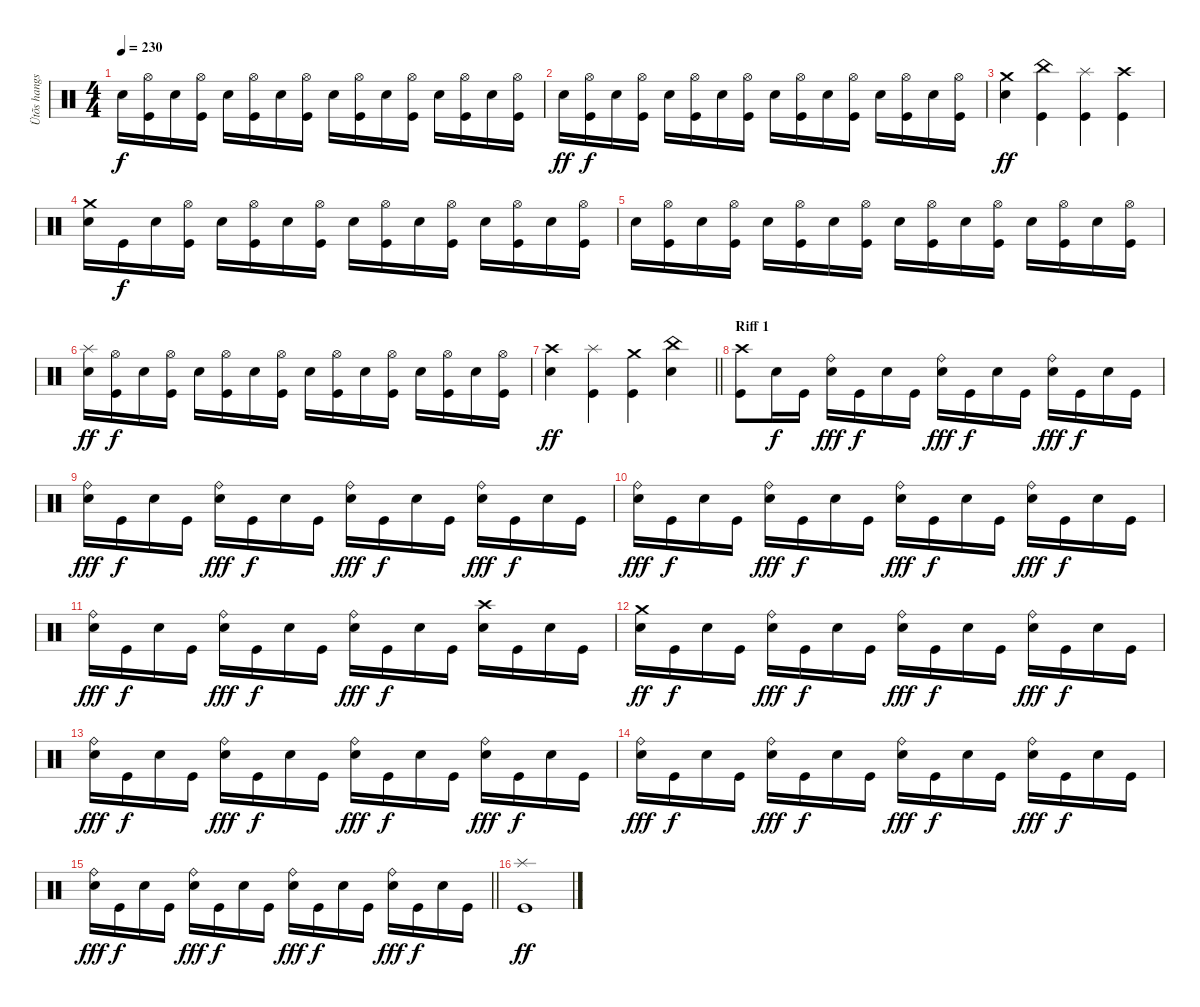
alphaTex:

\track ("Ütõs hangszer" "Ütõs hangs") {instrument percussion}
\staff {score}
\articulation defaults
\ts (4 4)
\tempo 230
\clef neutral
\ks c "Electric Snare (hit)".16{dy f}
("Hi-Hat (open)" "Kick (hit)").16 "Electric Snare (hit)".16 ("Hi-Hat (open)" "Kick (hit)").16 "Electric Snare (hit)".16 ("Hi-Hat (open)" "Kick (hit)").16 "Electric Snare (hit)".16 ("Hi-Hat (open)" "Kick (hit)").16 "Electric Snare (hit)".16 ("Hi-Hat (open)" "Kick (hit)").16 "Electric Snare (hit)".16 ("Hi-Hat (open)" "Kick (hit)").16 "Electric Snare (hit)".16 ("Hi-Hat (open)" "Kick (hit)").16 "Electric Snare (hit)".16 ("Hi-Hat (open)" "Kick (hit)").16 |
"Electric Snare (hit)".16{dy ff} ("Hi-Hat (open)" "Kick (hit)").16{dy f} "Electric Snare (hit)".16 ("Hi-Hat (open)" "Kick (hit)").16 "Electric Snare (hit)".16 ("Hi-Hat (open)" "Kick (hit)").16 "Electric Snare (hit)".16 ("Hi-Hat (open)" "Kick (hit)").16 "Electric Snare (hit)".16 ("Hi-Hat (open)" "Kick (hit)").16 "Electric Snare (hit)".16 ("Hi-Hat (open)" "Kick (hit)").16 "Electric Snare (hit)".16 ("Hi-Hat (open)" "Kick (hit)").16 "Electric Snare (hit)".16 ("Hi-Hat (open)" "Kick (hit)").16 |
("Crash medium (hit)" "Electric Snare (hit)").4{dy ff} ("China (hit)" "Kick (hit)").4 ("Splash (hit)" "Kick (hit)").4 ("Crash high (hit)" "Kick (hit)").4 |
("Crash medium (hit)" "Electric Snare (hit)").16 "Kick (hit)".16{dy f} "Electric Snare (hit)".16 ("Hi-Hat (open)" "Kick (hit)").16 "Electric Snare (hit)".16 ("Hi-Hat (open)" "Kick (hit)").16 "Electric Snare (hit)".16 ("Hi-Hat (open)" "Kick (hit)").16 "Electric Snare (hit)".16 ("Hi-Hat (open)" "Kick (hit)").16 "Electric Snare (hit)".16 ("Hi-Hat (open)" "Kick (hit)").16 "Electric Snare (hit)".16 ("Hi-Hat (open)" "Kick (hit)").16 "Electric Snare (hit)".16 ("Hi-Hat (open)" "Kick (hit)").16 |
"Electric Snare (hit)".16 ("Hi-Hat (open)" "Kick (hit)").16 "Electric Snare (hit)".16 ("Hi-Hat (open)" "Kick (hit)").16 "Electric Snare (hit)".16 ("Hi-Hat (open)" "Kick (hit)").16 "Electric Snare (hit)".16 ("Hi-Hat (open)" "Kick (hit)").16 "Electric Snare (hit)".16 ("Hi-Hat (open)" "Kick (hit)").16 "Electric Snare (hit)".16 ("Hi-Hat (open)" "Kick (hit)").16 "Electric Snare (hit)".16 ("Hi-Hat (open)" "Kick (hit)").16 "Electric Snare (hit)".16 ("Hi-Hat (open)" "Kick (hit)").16 |
("Splash (hit)" "Electric Snare (hit)").16{dy ff} ("Hi-Hat (open)" "Kick (hit)").16{dy f} "Electric Snare (hit)".16 ("Hi-Hat (open)" "Kick (hit)").16 "Electric Snare (hit)".16 ("Hi-Hat (open)" "Kick (hit)").16 "Electric Snare (hit)".16 ("Hi-Hat (open)" "Kick (hit)").16 "Electric Snare (hit)".16 ("Hi-Hat (open)" "Kick (hit)").16 "Electric Snare (hit)".16 ("Hi-Hat (open)" "Kick (hit)").16 "Electric Snare (hit)".16 ("Hi-Hat (open)" "Kick (hit)").16 "Electric Snare (hit)".16 ("Hi-Hat (open)" "Kick (hit)").16 |
\barLineRight lightlight
("Crash high (hit)" "Electric Snare (hit)").4{dy ff} ("Splash (hit)" "Kick (hit)").4 ("Crash medium (hit)" "Kick (hit)").4 ("China (hit)" "Electric Snare (hit)").4 |
\section ("" "Riff 1")
("Crash high (hit)" "Kick (hit)").8 "Electric Snare (hit)".16{dy f} "Kick (hit)".16 ("Ride (bell)" "Electric Snare (hit)").16{dy fff} "Kick (hit)".16{dy f} "Electric Snare (hit)".16 "Kick (hit)".16 ("Ride (bell)" "Electric Snare (hit)").16{dy fff} "Kick (hit)".16{dy f} "Electric Snare (hit)".16 "Kick (hit)".16 ("Ride (bell)" "Electric Snare (hit)").16{dy fff} "Kick (hit)".16{dy f} "Electric Snare (hit)".16 "Kick (hit)".16 |
("Ride (bell)" "Electric Snare (hit)").16{dy fff} "Kick (hit)".16{dy f} "Electric Snare (hit)".16 "Kick (hit)".16 ("Ride (bell)" "Electric Snare (hit)").16{dy fff} "Kick (hit)".16{dy f} "Electric Snare (hit)".16 "Kick (hit)".16 ("Ride (bell)" "Electric Snare (hit)").16{dy fff} "Kick (hit)".16{dy f} "Electric Snare (hit)".16 "Kick (hit)".16 ("Ride (bell)" "Electric Snare (hit)").16{dy fff} "Kick (hit)".16{dy f} "Electric Snare (hit)".16 "Kick (hit)".16 |
("Ride (bell)" "Electric Snare (hit)").16{dy fff} "Kick (hit)".16{dy f} "Electric Snare (hit)".16 "Kick (hit)".16 ("Ride (bell)" "Electric Snare (hit)").16{dy fff} "Kick (hit)".16{dy f} "Electric Snare (hit)".16 "Kick (hit)".16 ("Ride (bell)" "Electric Snare (hit)").16{dy fff} "Kick (hit)".16{dy f} "Electric Snare (hit)".16 "Kick (hit)".16 ("Ride (bell)" "Electric Snare (hit)").16{dy fff} "Kick (hit)".16{dy f} "Electric Snare (hit)".16 "Kick (hit)".16 |
("Ride (bell)" "Electric Snare (hit)").16{dy fff} "Kick (hit)".16{dy f} "Electric Snare (hit)".16 "Kick (hit)".16 ("Ride (bell)" "Electric Snare (hit)").16{dy fff} "Kick (hit)".16{dy f} "Electric Snare (hit)".16 "Kick (hit)".16 ("Ride (bell)" "Electric Snare (hit)").16{dy fff} "Kick (hit)".16{dy f} "Electric Snare (hit)".16 "Kick (hit)".16 ("Crash high (hit)" "Electric Snare (hit)").16 "Kick (hit)".16 "Electric Snare (hit)".16 "Kick (hit)".16 |
("Crash medium (hit)" "Electric Snare (hit)").16{dy ff} "Kick (hit)".16{dy f} "Electric Snare (hit)".16 "Kick (hit)".16 ("Ride (bell)" "Electric Snare (hit)").16{dy fff} "Kick (hit)".16{dy f} "Electric Snare (hit)".16 "Kick (hit)".16 ("Ride (bell)" "Electric Snare (hit)").16{dy fff} "Kick (hit)".16{dy f} "Electric Snare (hit)".16 "Kick (hit)".16 ("Ride (bell)" "Electric Snare (hit)").16{dy fff} "Kick (hit)".16{dy f} "Electric Snare (hit)".16 "Kick (hit)".16 |
("Ride (bell)" "Electric Snare (hit)").16{dy fff} "Kick (hit)".16{dy f} "Electric Snare (hit)".16 "Kick (hit)".16 ("Ride (bell)" "Electric Snare (hit)").16{dy fff} "Kick (hit)".16{dy f} "Electric Snare (hit)".16 "Kick (hit)".16 ("Ride (bell)" "Electric Snare (hit)").16{dy fff} "Kick (hit)".16{dy f} "Electric Snare (hit)".16 "Kick (hit)".16 ("Ride (bell)" "Electric Snare (hit)").16{dy fff} "Kick (hit)".16{dy f} "Electric Snare (hit)".16 "Kick (hit)".16 |
("Ride (bell)" "Electric Snare (hit)").16{dy fff} "Kick (hit)".16{dy f} "Electric Snare (hit)".16 "Kick (hit)".16 ("Ride (bell)" "Electric Snare (hit)").16{dy fff} "Kick (hit)".16{dy f} "Electric Snare (hit)".16 "Kick (hit)".16 ("Ride (bell)" "Electric Snare (hit)").16{dy fff} "Kick (hit)".16{dy f} "Electric Snare (hit)".16 "Kick (hit)".16 ("Ride (bell)" "Electric Snare (hit)").16{dy fff} "Kick (hit)".16{dy f} "Electric Snare (hit)".16 "Kick (hit)".16 |
\barLineRight lightlight
("Ride (bell)" "Electric Snare (hit)").16{dy fff} "Kick (hit)".16{dy f} "Electric Snare (hit)".16 "Kick (hit)".16 ("Ride (bell)" "Electric Snare (hit)").16{dy fff} "Kick (hit)".16{dy f} "Electric Snare (hit)".16 "Kick (hit)".16 ("Ride (bell)" "Electric Snare (hit)").16{dy fff} "Kick (hit)".16{dy f} "Electric Snare (hit)".16 "Kick (hit)".16 ("Ride (bell)" "Electric Snare (hit)").16{dy fff} "Kick (hit)".16{dy f} "Electric Snare (hit)".16 "Kick (hit)".16 |
\section ("" "")
("Splash (hit)" "Kick (hit)").1{dy ff}
